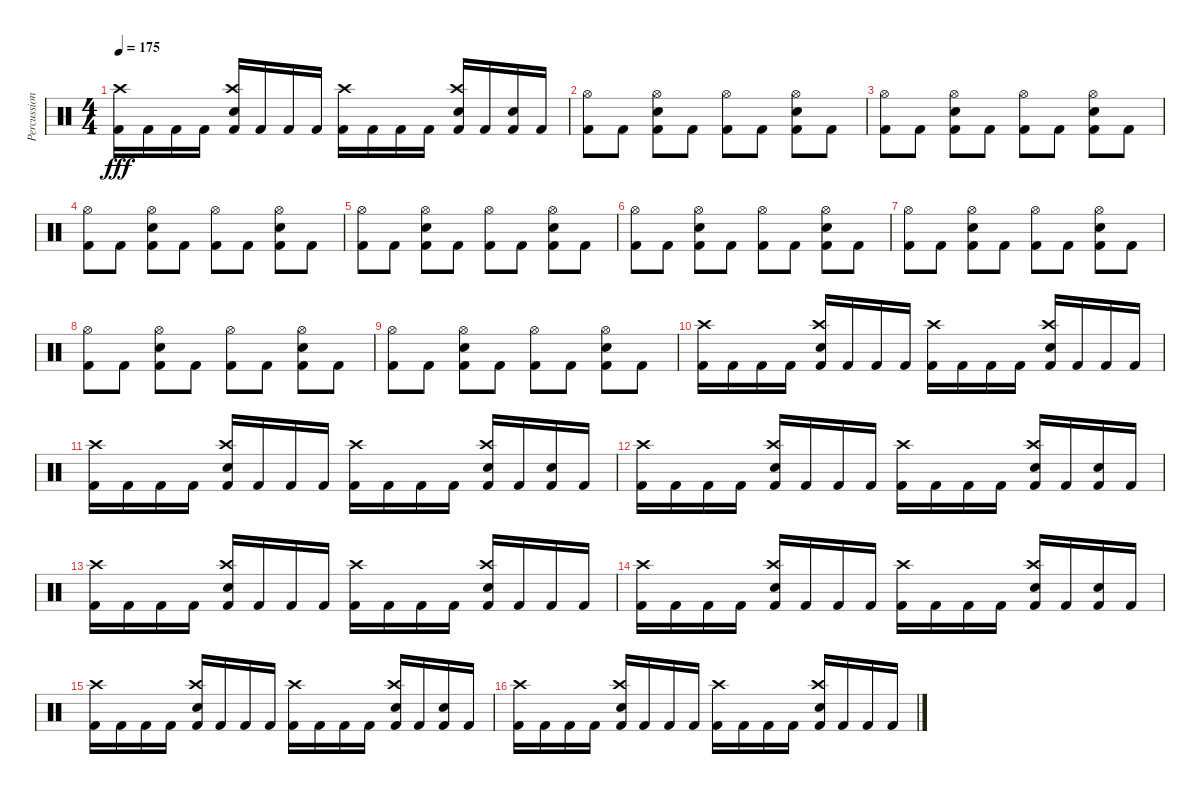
\track ("Percussion" "Percussion") {instrument percussion}
\staff {score}
\articulation defaults
\ts (4 4)
\tempo 175
\clef neutral
\ks c
("Kick (hit) 2" "Crash high (hit)").16{dy fff} "Kick (hit) 2".16 "Kick (hit) 2".16 "Kick (hit) 2".16 ("Kick (hit) 2" "Electric Snare (hit)" "Crash high (hit)").16 "Kick (hit) 2".16 "Kick (hit) 2".16 "Kick (hit) 2".16 ("Kick (hit) 2" "Crash high (hit)").16 "Kick (hit) 2".16 "Kick (hit) 2".16 "Kick (hit) 2".16 ("Kick (hit) 2" "Electric Snare (hit)" "Crash high (hit)").16 "Kick (hit) 2".16 ("Kick (hit) 2" "Electric Snare (hit)").16 "Kick (hit) 2".16 |
("Kick (hit) 2" "Hi-Hat (open)").8 "Kick (hit) 2".8 ("Kick (hit) 2" "Electric Snare (hit)" "Hi-Hat (open)").8 "Kick (hit) 2".8 ("Kick (hit) 2" "Hi-Hat (open)").8 "Kick (hit) 2".8 ("Kick (hit) 2" "Electric Snare (hit)" "Hi-Hat (open)").8 "Kick (hit) 2".8 |
("Kick (hit) 2" "Hi-Hat (open)").8 "Kick (hit) 2".8 ("Kick (hit) 2" "Electric Snare (hit)" "Hi-Hat (open)").8 "Kick (hit) 2".8 ("Kick (hit) 2" "Hi-Hat (open)").8 "Kick (hit) 2".8 ("Kick (hit) 2" "Electric Snare (hit)" "Hi-Hat (open)").8 "Kick (hit) 2".8 |
("Kick (hit) 2" "Hi-Hat (open)").8 "Kick (hit) 2".8 ("Kick (hit) 2" "Electric Snare (hit)" "Hi-Hat (open)").8 "Kick (hit) 2".8 ("Kick (hit) 2" "Hi-Hat (open)").8 "Kick (hit) 2".8 ("Kick (hit) 2" "Electric Snare (hit)" "Hi-Hat (open)").8 "Kick (hit) 2".8 |
("Kick (hit) 2" "Hi-Hat (open)").8 "Kick (hit) 2".8 ("Kick (hit) 2" "Electric Snare (hit)" "Hi-Hat (open)").8 "Kick (hit) 2".8 ("Kick (hit) 2" "Hi-Hat (open)").8 "Kick (hit) 2".8 ("Kick (hit) 2" "Electric Snare (hit)" "Hi-Hat (open)").8 "Kick (hit) 2".8 |
("Kick (hit) 2" "Hi-Hat (open)").8 "Kick (hit) 2".8 ("Kick (hit) 2" "Electric Snare (hit)" "Hi-Hat (open)").8 "Kick (hit) 2".8 ("Kick (hit) 2" "Hi-Hat (open)").8 "Kick (hit) 2".8 ("Kick (hit) 2" "Electric Snare (hit)" "Hi-Hat (open)").8 "Kick (hit) 2".8 |
("Kick (hit) 2" "Hi-Hat (open)").8 "Kick (hit) 2".8 ("Kick (hit) 2" "Electric Snare (hit)" "Hi-Hat (open)").8 "Kick (hit) 2".8 ("Kick (hit) 2" "Hi-Hat (open)").8 "Kick (hit) 2".8 ("Kick (hit) 2" "Electric Snare (hit)" "Hi-Hat (open)").8 "Kick (hit) 2".8 |
("Kick (hit) 2" "Hi-Hat (open)").8 "Kick (hit) 2".8 ("Kick (hit) 2" "Electric Snare (hit)" "Hi-Hat (open)").8 "Kick (hit) 2".8 ("Kick (hit) 2" "Hi-Hat (open)").8 "Kick (hit) 2".8 ("Kick (hit) 2" "Electric Snare (hit)" "Hi-Hat (open)").8 "Kick (hit) 2".8 |
("Kick (hit) 2" "Hi-Hat (open)").8 "Kick (hit) 2".8 ("Kick (hit) 2" "Electric Snare (hit)" "Hi-Hat (open)").8 "Kick (hit) 2".8 ("Kick (hit) 2" "Hi-Hat (open)").8 "Kick (hit) 2".8 ("Kick (hit) 2" "Electric Snare (hit)" "Hi-Hat (open)").8 "Kick (hit) 2".8 |
("Kick (hit) 2" "Crash high (hit)").16 "Kick (hit) 2".16 "Kick (hit) 2".16 "Kick (hit) 2".16 ("Kick (hit) 2" "Electric Snare (hit)" "Crash high (hit)").16 "Kick (hit) 2".16 "Kick (hit) 2".16 "Kick (hit) 2".16 ("Kick (hit) 2" "Crash high (hit)").16 "Kick (hit) 2".16 "Kick (hit) 2".16 "Kick (hit) 2".16 ("Kick (hit) 2" "Electric Snare (hit)" "Crash high (hit)").16 "Kick (hit) 2".16 "Kick (hit) 2".16 "Kick (hit) 2".16 |
("Kick (hit) 2" "Crash high (hit)").16 "Kick (hit) 2".16 "Kick (hit) 2".16 "Kick (hit) 2".16 ("Kick (hit) 2" "Electric Snare (hit)" "Crash high (hit)").16 "Kick (hit) 2".16 "Kick (hit) 2".16 "Kick (hit) 2".16 ("Kick (hit) 2" "Crash high (hit)").16 "Kick (hit) 2".16 "Kick (hit) 2".16 "Kick (hit) 2".16 ("Kick (hit) 2" "Electric Snare (hit)" "Crash high (hit)").16 "Kick (hit) 2".16 ("Kick (hit) 2" "Electric Snare (hit)").16 "Kick (hit) 2".16 |
("Kick (hit) 2" "Crash high (hit)").16 "Kick (hit) 2".16 "Kick (hit) 2".16 "Kick (hit) 2".16 ("Kick (hit) 2" "Electric Snare (hit)" "Crash high (hit)").16 "Kick (hit) 2".16 "Kick (hit) 2".16 "Kick (hit) 2".16 ("Kick (hit) 2" "Crash high (hit)").16 "Kick (hit) 2".16 "Kick (hit) 2".16 "Kick (hit) 2".16 ("Kick (hit) 2" "Electric Snare (hit)" "Crash high (hit)").16 "Kick (hit) 2".16 ("Kick (hit) 2" "Electric Snare (hit)").16 "Kick (hit) 2".16 |
("Kick (hit) 2" "Crash high (hit)").16 "Kick (hit) 2".16 "Kick (hit) 2".16 "Kick (hit) 2".16 ("Kick (hit) 2" "Electric Snare (hit)" "Crash high (hit)").16 "Kick (hit) 2".16 "Kick (hit) 2".16 "Kick (hit) 2".16 ("Kick (hit) 2" "Crash high (hit)").16 "Kick (hit) 2".16 "Kick (hit) 2".16 "Kick (hit) 2".16 ("Kick (hit) 2" "Electric Snare (hit)" "Crash high (hit)").16 "Kick (hit) 2".16 "Kick (hit) 2".16 "Kick (hit) 2".16 |
("Kick (hit) 2" "Crash high (hit)").16 "Kick (hit) 2".16 "Kick (hit) 2".16 "Kick (hit) 2".16 ("Kick (hit) 2" "Electric Snare (hit)" "Crash high (hit)").16 "Kick (hit) 2".16 "Kick (hit) 2".16 "Kick (hit) 2".16 ("Kick (hit) 2" "Crash high (hit)").16 "Kick (hit) 2".16 "Kick (hit) 2".16 "Kick (hit) 2".16 ("Kick (hit) 2" "Electric Snare (hit)" "Crash high (hit)").16 "Kick (hit) 2".16 ("Kick (hit) 2" "Electric Snare (hit)").16 "Kick (hit) 2".16 |
("Kick (hit) 2" "Crash high (hit)").16 "Kick (hit) 2".16 "Kick (hit) 2".16 "Kick (hit) 2".16 ("Kick (hit) 2" "Electric Snare (hit)" "Crash high (hit)").16 "Kick (hit) 2".16 "Kick (hit) 2".16 "Kick (hit) 2".16 ("Kick (hit) 2" "Crash high (hit)").16 "Kick (hit) 2".16 "Kick (hit) 2".16 "Kick (hit) 2".16 ("Kick (hit) 2" "Electric Snare (hit)" "Crash high (hit)").16 "Kick (hit) 2".16 ("Kick (hit) 2" "Electric Snare (hit)").16 "Kick (hit) 2".16 |
("Kick (hit) 2" "Crash high (hit)").16 "Kick (hit) 2".16 "Kick (hit) 2".16 "Kick (hit) 2".16 ("Kick (hit) 2" "Electric Snare (hit)" "Crash high (hit)").16 "Kick (hit) 2".16 "Kick (hit) 2".16 "Kick (hit) 2".16 ("Kick (hit) 2" "Crash high (hit)").16 "Kick (hit) 2".16 "Kick (hit) 2".16 "Kick (hit) 2".16 ("Kick (hit) 2" "Electric Snare (hit)" "Crash high (hit)").16 "Kick (hit) 2".16 "Kick (hit) 2".16 "Kick (hit) 2".16
